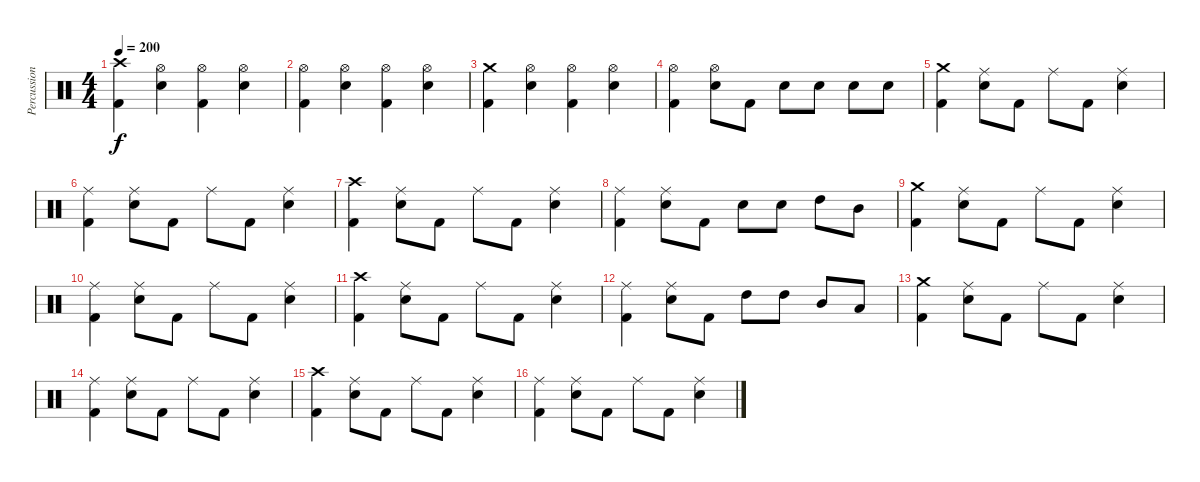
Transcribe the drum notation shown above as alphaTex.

\track ("Percussioni" "Percussion") {instrument percussion}
\staff {score}
\articulation defaults
\ts (4 4)
\tempo 200
\clef neutral
\ks c
("Crash high (hit)" "Kick (hit) 2").4{dy f} ("Hi-Hat (open)" "Electric Snare (hit)").4 ("Hi-Hat (open)" "Kick (hit) 2").4 ("Hi-Hat (open)" "Electric Snare (hit)").4 |
("Hi-Hat (open)" "Kick (hit) 2").4 ("Hi-Hat (open)" "Electric Snare (hit)").4 ("Hi-Hat (open)" "Kick (hit) 2").4 ("Hi-Hat (open)" "Electric Snare (hit)").4 |
("Crash medium (hit)" "Kick (hit) 2").4 ("Hi-Hat (open)" "Electric Snare (hit)").4 ("Hi-Hat (open)" "Kick (hit) 2").4 ("Hi-Hat (open)" "Electric Snare (hit)").4 |
("Hi-Hat (open)" "Kick (hit) 2").4 ("Hi-Hat (open)" "Electric Snare (hit)").8 "Kick (hit) 2".8 "Electric Snare (hit)".8 "Electric Snare (hit)".8 "Electric Snare (hit)".8 "Electric Snare (hit)".8 |
("Crash medium (hit)" "Kick (hit) 2").4 ("Ride (middle)" "Electric Snare (hit)").8 "Kick (hit) 2".8 "Ride (middle)".8 "Kick (hit) 2".8 ("Ride (middle)" "Electric Snare (hit)").4 |
("Ride (middle)" "Kick (hit) 2").4 ("Ride (middle)" "Electric Snare (hit)").8 "Kick (hit) 2".8 "Ride (middle)".8 "Kick (hit) 2".8 ("Ride (middle)" "Electric Snare (hit)").4 |
("Crash high (hit)" "Kick (hit) 2").4 ("Ride (middle)" "Electric Snare (hit)").8 "Kick (hit) 2".8 "Ride (middle)".8 "Kick (hit) 2".8 ("Ride (middle)" "Electric Snare (hit)").4 |
("Ride (middle)" "Kick (hit) 2").4 ("Ride (middle)" "Electric Snare (hit)").8 "Kick (hit) 2".8 "Electric Snare (hit)".8 "Electric Snare (hit)".8 "High Tom (hit)".8 "Mid Tom (hit)".8 |
("Crash medium (hit)" "Kick (hit) 2").4 ("Ride (middle)" "Electric Snare (hit)").8 "Kick (hit) 2".8 "Ride (middle)".8 "Kick (hit) 2".8 ("Ride (middle)" "Electric Snare (hit)").4 |
("Ride (middle)" "Kick (hit) 2").4 ("Ride (middle)" "Electric Snare (hit)").8 "Kick (hit) 2".8 "Ride (middle)".8 "Kick (hit) 2".8 ("Ride (middle)" "Electric Snare (hit)").4 |
("Crash high (hit)" "Kick (hit) 2").4 ("Ride (middle)" "Electric Snare (hit)").8 "Kick (hit) 2".8 "Ride (middle)".8 "Kick (hit) 2".8 ("Ride (middle)" "Electric Snare (hit)").4 |
("Ride (middle)" "Kick (hit) 2").4 ("Ride (middle)" "Electric Snare (hit)").8 "Kick (hit) 2".8 "High Tom (hit)".8 "High Tom (hit)".8 "Mid Tom (hit)".8 "Low Tom (hit)".8 |
("Crash medium (hit)" "Kick (hit) 2").4 ("Ride (middle)" "Electric Snare (hit)").8 "Kick (hit) 2".8 "Ride (middle)".8 "Kick (hit) 2".8 ("Ride (middle)" "Electric Snare (hit)").4 |
("Ride (middle)" "Kick (hit) 2").4 ("Ride (middle)" "Electric Snare (hit)").8 "Kick (hit) 2".8 "Ride (middle)".8 "Kick (hit) 2".8 ("Ride (middle)" "Electric Snare (hit)").4 |
("Crash high (hit)" "Kick (hit) 2").4 ("Ride (middle)" "Electric Snare (hit)").8 "Kick (hit) 2".8 "Ride (middle)".8 "Kick (hit) 2".8 ("Ride (middle)" "Electric Snare (hit)").4 |
("Ride (middle)" "Kick (hit) 2").4 ("Ride (middle)" "Electric Snare (hit)").8 "Kick (hit) 2".8 "Ride (middle)".8 "Kick (hit) 2".8 ("Ride (middle)" "Electric Snare (hit)").4
